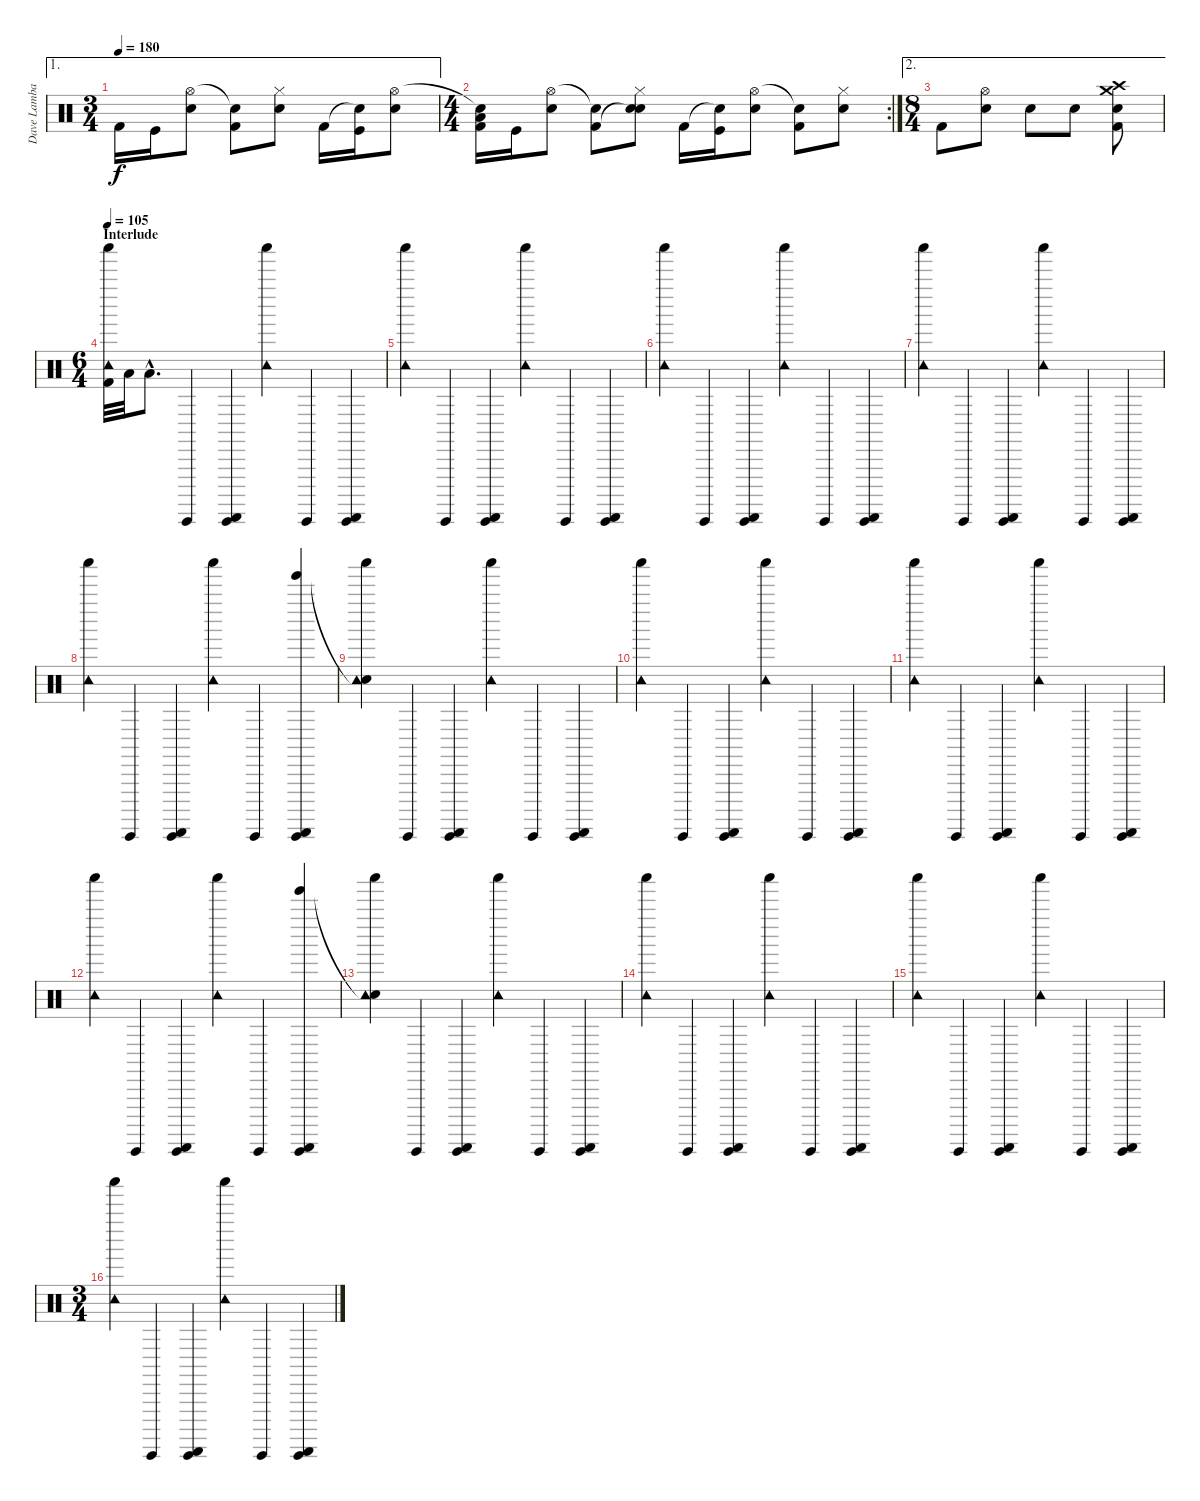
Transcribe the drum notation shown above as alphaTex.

\track ("Dave Lambardo" "Dave Lamba") {instrument percussion}
\staff {score}
\articulation defaults
\ae 1
\ts (3 4)
\tempo 180
\clef neutral
\ks c "Kick (hit) 2".16{dy f} "Kick (hit)".16
("Hi-Hat (open)" "Snare (hit) 2").8 ("Snare (hit)"{t} "Kick (hit) 2").8 ("Hi-Hat (closed)" "Snare (hit) 2").8 "Kick (hit) 2".16 ("Snare (hit)"{t} "Kick (hit)").16 ("Hi-Hat (open)" "Snare (hit) 2").8 |
\rc 2
\ts (4 4)
("Snare (hit)"{t} "Low Floor Tom (hit)" "Kick (hit) 2").16 "Kick (hit)".16 ("Hi-Hat (open)" "Snare (hit) 2").8 ("Snare (hit)"{t} "Kick (hit) 2").8 ("Hi-Hat (closed)" "Snare (hit)"{t} "Snare (hit) 2").8 "Kick (hit) 2".16 ("Snare (hit)"{t} "Kick (hit)").16 ("Hi-Hat (open)" "Snare (hit) 2").8 ("Snare (hit)"{t} "Kick (hit) 2").8 ("Hi-Hat (closed)" "Snare (hit) 2").8 |
\ae 2
\ts (8 4)
"Kick (hit) 2".8 ("Hi-Hat (open)" "Snare (hit) 2").8 "Snare (hit) 2".8 "Snare (hit) 2".8 ("Crash high (hit)" "Crash medium (hit)" "Snare (hit) 2" "Kick (hit) 2").8 |
\ts (6 4)
\section ("" "Interlude")
\tempo 105
("Tambourine (hit)" "Shaker (hit)" "Kick (hit) 2").32{volume 8} "Low Floor Tom (hit)".32{volume 13} "Low Floor Tom (hit)"{hac}.8{d} "Guiro (hit)".4 ("Guiro (hit)" "Guiro (scrap-return)").4 ("Tambourine (hit)" "Shaker (hit)").4{volume 8} "Guiro (hit)".4{volume 13} ("Guiro (hit)" "Guiro (scrap-return)").4 |
("Tambourine (hit)" "Shaker (hit)").4{volume 8} "Guiro (hit)".4{volume 13} ("Guiro (hit)" "Guiro (scrap-return)").4 ("Tambourine (hit)" "Shaker (hit)").4{volume 8} "Guiro (hit)".4{volume 13} ("Guiro (hit)" "Guiro (scrap-return)").4 |
("Tambourine (hit)" "Shaker (hit)").4{volume 8} "Guiro (hit)".4{volume 13} ("Guiro (hit)" "Guiro (scrap-return)").4 ("Tambourine (hit)" "Shaker (hit)").4{volume 8} "Guiro (hit)".4{volume 13} ("Guiro (hit)" "Guiro (scrap-return)").4 |
("Tambourine (hit)" "Shaker (hit)").4{volume 8} "Guiro (hit)".4{volume 13} ("Guiro (hit)" "Guiro (scrap-return)").4 ("Tambourine (hit)" "Shaker (hit)").4{volume 8} "Guiro (hit)".4{volume 13} ("Guiro (hit)" "Guiro (scrap-return)").4 |
("Tambourine (hit)" "Shaker (hit)").4{volume 8} "Guiro (hit)".4{volume 13} ("Guiro (hit)" "Guiro (scrap-return)").4 ("Tambourine (hit)" "Shaker (hit)").4{volume 8} "Guiro (hit)".4{volume 13} ("Tinkle Bell (hit)" "Guiro (hit)" "Guiro (scrap-return)").4 |
("Snare (hit)"{t} "Tambourine (hit)" "Shaker (hit)").4{volume 8} "Guiro (hit)".4{volume 13} ("Guiro (hit)" "Guiro (scrap-return)").4 ("Tambourine (hit)" "Shaker (hit)").4{volume 8} "Guiro (hit)".4{volume 13} ("Guiro (hit)" "Guiro (scrap-return)").4 |
("Tambourine (hit)" "Shaker (hit)").4{volume 8} "Guiro (hit)".4{volume 13} ("Guiro (hit)" "Guiro (scrap-return)").4 ("Tambourine (hit)" "Shaker (hit)").4{volume 8} "Guiro (hit)".4{volume 13} ("Guiro (hit)" "Guiro (scrap-return)").4 |
("Tambourine (hit)" "Shaker (hit)").4{volume 8} "Guiro (hit)".4{volume 13} ("Guiro (hit)" "Guiro (scrap-return)").4 ("Tambourine (hit)" "Shaker (hit)").4{volume 8} "Guiro (hit)".4{volume 13} ("Guiro (hit)" "Guiro (scrap-return)").4 |
("Tambourine (hit)" "Shaker (hit)").4{volume 8} "Guiro (hit)".4{volume 13} ("Guiro (hit)" "Guiro (scrap-return)").4 ("Tambourine (hit)" "Shaker (hit)").4{volume 8} "Guiro (hit)".4{volume 13} ("Tinkle Bell (hit)" "Guiro (hit)" "Guiro (scrap-return)").4 |
("Snare (hit)"{t} "Tambourine (hit)" "Shaker (hit)").4{volume 8} "Guiro (hit)".4{volume 13} ("Guiro (hit)" "Guiro (scrap-return)").4 ("Tambourine (hit)" "Shaker (hit)").4{volume 8} "Guiro (hit)".4{volume 13} ("Guiro (hit)" "Guiro (scrap-return)").4 |
("Tambourine (hit)" "Shaker (hit)").4{volume 8} "Guiro (hit)".4{volume 13} ("Guiro (hit)" "Guiro (scrap-return)").4 ("Tambourine (hit)" "Shaker (hit)").4{volume 8} "Guiro (hit)".4{volume 13} ("Guiro (hit)" "Guiro (scrap-return)").4 |
("Tambourine (hit)" "Shaker (hit)").4{volume 8} "Guiro (hit)".4{volume 13} ("Guiro (hit)" "Guiro (scrap-return)").4 ("Tambourine (hit)" "Shaker (hit)").4{volume 8} "Guiro (hit)".4{volume 13} ("Guiro (hit)" "Guiro (scrap-return)").4 |
\ts (3 4)
("Tambourine (hit)" "Shaker (hit)").4{volume 8} "Guiro (hit)".4{volume 13} ("Guiro (hit)" "Guiro (scrap-return)").4 ("Tambourine (hit)" "Shaker (hit)").4{volume 8} "Guiro (hit)".4{volume 13} ("Guiro (hit)" "Guiro (scrap-return)").4
